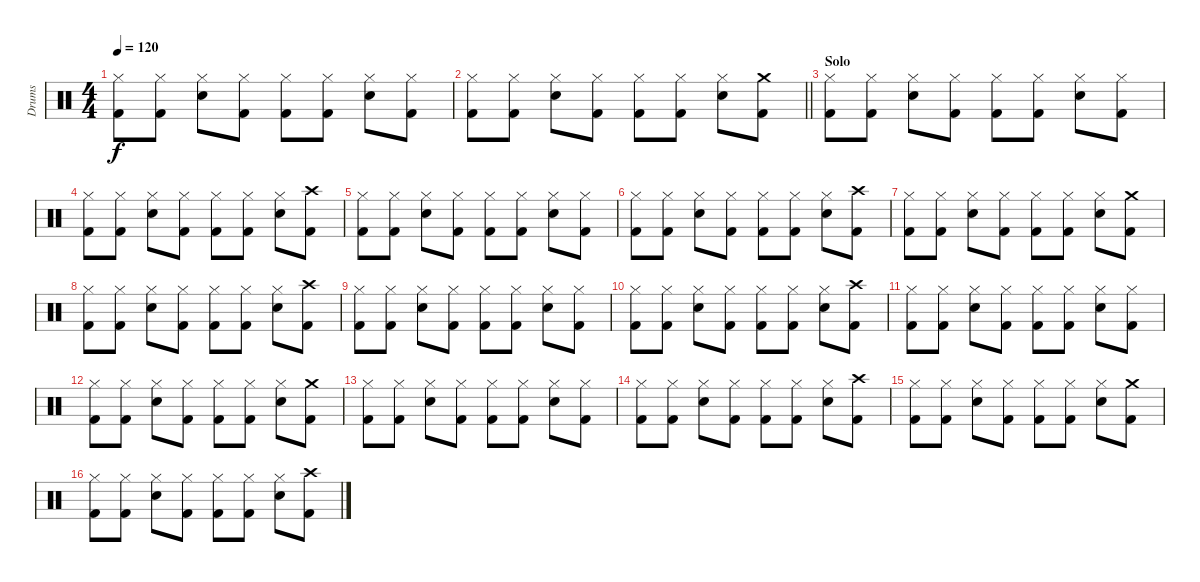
\track ("Drums" "Drums") {instrument percussion}
\staff {score}
\articulation defaults
\ts (4 4)
\tempo 120
\clef neutral
\ks c
("Hi-Hat (closed)" "Kick (hit) 2").8{dy f} ("Hi-Hat (closed)" "Kick (hit) 2").8 ("Hi-Hat (closed)" "Snare (hit) 2").8 ("Hi-Hat (closed)" "Kick (hit) 2").8 ("Hi-Hat (closed)" "Kick (hit) 2").8 ("Hi-Hat (closed)" "Kick (hit) 2").8 ("Hi-Hat (closed)" "Snare (hit) 2").8 ("Hi-Hat (closed)" "Kick (hit) 2").8 |
\barLineRight lightlight
("Hi-Hat (closed)" "Kick (hit) 2").8 ("Hi-Hat (closed)" "Kick (hit) 2").8 ("Hi-Hat (closed)" "Snare (hit) 2").8 ("Hi-Hat (closed)" "Kick (hit) 2").8 ("Hi-Hat (closed)" "Kick (hit) 2").8 ("Hi-Hat (closed)" "Kick (hit) 2").8 ("Hi-Hat (closed)" "Snare (hit) 2").8 ("Crash medium (hit)" "Kick (hit) 2").8 |
\section ("" "Solo")
("Hi-Hat (closed)" "Kick (hit) 2").8 ("Hi-Hat (closed)" "Kick (hit) 2").8 ("Hi-Hat (closed)" "Snare (hit) 2").8 ("Hi-Hat (closed)" "Kick (hit) 2").8 ("Hi-Hat (closed)" "Kick (hit) 2").8 ("Hi-Hat (closed)" "Kick (hit) 2").8 ("Hi-Hat (closed)" "Snare (hit) 2").8 ("Hi-Hat (closed)" "Kick (hit) 2").8 |
("Hi-Hat (closed)" "Kick (hit) 2").8 ("Hi-Hat (closed)" "Kick (hit) 2").8 ("Hi-Hat (closed)" "Snare (hit) 2").8 ("Hi-Hat (closed)" "Kick (hit) 2").8 ("Hi-Hat (closed)" "Kick (hit) 2").8 ("Hi-Hat (closed)" "Kick (hit) 2").8 ("Hi-Hat (closed)" "Snare (hit) 2").8 ("Crash high (hit)" "Kick (hit) 2").8 |
("Hi-Hat (closed)" "Kick (hit) 2").8 ("Hi-Hat (closed)" "Kick (hit) 2").8 ("Hi-Hat (closed)" "Snare (hit) 2").8 ("Hi-Hat (closed)" "Kick (hit) 2").8 ("Hi-Hat (closed)" "Kick (hit) 2").8 ("Hi-Hat (closed)" "Kick (hit) 2").8 ("Hi-Hat (closed)" "Snare (hit) 2").8 ("Hi-Hat (closed)" "Kick (hit) 2").8 |
("Hi-Hat (closed)" "Kick (hit) 2").8 ("Hi-Hat (closed)" "Kick (hit) 2").8 ("Hi-Hat (closed)" "Snare (hit) 2").8 ("Hi-Hat (closed)" "Kick (hit) 2").8 ("Hi-Hat (closed)" "Kick (hit) 2").8 ("Hi-Hat (closed)" "Kick (hit) 2").8 ("Hi-Hat (closed)" "Snare (hit) 2").8 ("Crash high (hit)" "Kick (hit) 2").8 |
("Hi-Hat (closed)" "Kick (hit) 2").8 ("Hi-Hat (closed)" "Kick (hit) 2").8 ("Hi-Hat (closed)" "Snare (hit) 2").8 ("Hi-Hat (closed)" "Kick (hit) 2").8 ("Hi-Hat (closed)" "Kick (hit) 2").8 ("Hi-Hat (closed)" "Kick (hit) 2").8 ("Hi-Hat (closed)" "Snare (hit) 2").8 ("Crash medium (hit)" "Kick (hit) 2").8 |
("Hi-Hat (closed)" "Kick (hit) 2").8 ("Hi-Hat (closed)" "Kick (hit) 2").8 ("Hi-Hat (closed)" "Snare (hit) 2").8 ("Hi-Hat (closed)" "Kick (hit) 2").8 ("Hi-Hat (closed)" "Kick (hit) 2").8 ("Hi-Hat (closed)" "Kick (hit) 2").8 ("Hi-Hat (closed)" "Snare (hit) 2").8 ("Crash high (hit)" "Kick (hit) 2").8 |
("Hi-Hat (closed)" "Kick (hit) 2").8 ("Hi-Hat (closed)" "Kick (hit) 2").8 ("Hi-Hat (closed)" "Snare (hit) 2").8 ("Hi-Hat (closed)" "Kick (hit) 2").8 ("Hi-Hat (closed)" "Kick (hit) 2").8 ("Hi-Hat (closed)" "Kick (hit) 2").8 ("Hi-Hat (closed)" "Snare (hit) 2").8 ("Hi-Hat (closed)" "Kick (hit) 2").8 |
("Hi-Hat (closed)" "Kick (hit) 2").8 ("Hi-Hat (closed)" "Kick (hit) 2").8 ("Hi-Hat (closed)" "Snare (hit) 2").8 ("Hi-Hat (closed)" "Kick (hit) 2").8 ("Hi-Hat (closed)" "Kick (hit) 2").8 ("Hi-Hat (closed)" "Kick (hit) 2").8 ("Hi-Hat (closed)" "Snare (hit) 2").8 ("Crash high (hit)" "Kick (hit) 2").8 |
("Hi-Hat (closed)" "Kick (hit) 2").8 ("Hi-Hat (closed)" "Kick (hit) 2").8 ("Hi-Hat (closed)" "Snare (hit) 2").8 ("Hi-Hat (closed)" "Kick (hit) 2").8 ("Hi-Hat (closed)" "Kick (hit) 2").8 ("Hi-Hat (closed)" "Kick (hit) 2").8 ("Hi-Hat (closed)" "Snare (hit) 2").8 ("Hi-Hat (closed)" "Kick (hit) 2").8 |
("Hi-Hat (closed)" "Kick (hit) 2").8 ("Hi-Hat (closed)" "Kick (hit) 2").8 ("Hi-Hat (closed)" "Snare (hit) 2").8 ("Hi-Hat (closed)" "Kick (hit) 2").8 ("Hi-Hat (closed)" "Kick (hit) 2").8 ("Hi-Hat (closed)" "Kick (hit) 2").8 ("Hi-Hat (closed)" "Snare (hit) 2").8 ("Crash medium (hit)" "Kick (hit) 2").8 |
("Hi-Hat (closed)" "Kick (hit) 2").8 ("Hi-Hat (closed)" "Kick (hit) 2").8 ("Hi-Hat (closed)" "Snare (hit) 2").8 ("Hi-Hat (closed)" "Kick (hit) 2").8 ("Hi-Hat (closed)" "Kick (hit) 2").8 ("Hi-Hat (closed)" "Kick (hit) 2").8 ("Hi-Hat (closed)" "Snare (hit) 2").8 ("Hi-Hat (closed)" "Kick (hit) 2").8 |
("Hi-Hat (closed)" "Kick (hit) 2").8 ("Hi-Hat (closed)" "Kick (hit) 2").8 ("Hi-Hat (closed)" "Snare (hit) 2").8 ("Hi-Hat (closed)" "Kick (hit) 2").8 ("Hi-Hat (closed)" "Kick (hit) 2").8 ("Hi-Hat (closed)" "Kick (hit) 2").8 ("Hi-Hat (closed)" "Snare (hit) 2").8 ("Crash high (hit)" "Kick (hit) 2").8 |
("Hi-Hat (closed)" "Kick (hit) 2").8 ("Hi-Hat (closed)" "Kick (hit) 2").8 ("Hi-Hat (closed)" "Snare (hit) 2").8 ("Hi-Hat (closed)" "Kick (hit) 2").8 ("Hi-Hat (closed)" "Kick (hit) 2").8 ("Hi-Hat (closed)" "Kick (hit) 2").8 ("Hi-Hat (closed)" "Snare (hit) 2").8 ("Crash medium (hit)" "Kick (hit) 2").8 |
("Hi-Hat (closed)" "Kick (hit) 2").8 ("Hi-Hat (closed)" "Kick (hit) 2").8 ("Hi-Hat (closed)" "Snare (hit) 2").8 ("Hi-Hat (closed)" "Kick (hit) 2").8 ("Hi-Hat (closed)" "Kick (hit) 2").8 ("Hi-Hat (closed)" "Kick (hit) 2").8 ("Hi-Hat (closed)" "Snare (hit) 2").8 ("Crash high (hit)" "Kick (hit) 2").8
